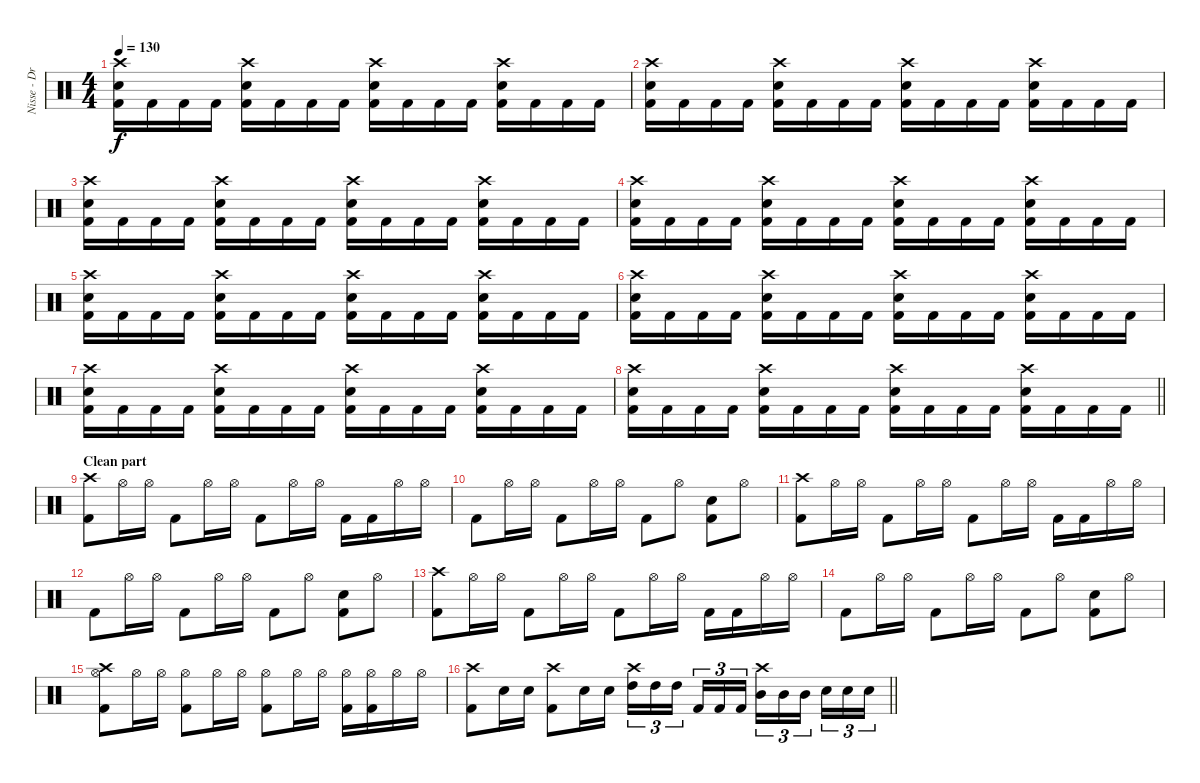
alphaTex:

\track ("Nisse - Drums" "Nisse - Dr") {instrument percussion}
\staff {score}
\articulation defaults
\ts (4 4)
\tempo 130
\clef neutral
\ks c
("Crash high (hit)" "Electric Snare (hit)" "Kick (hit) 2").16{dy f} "Kick (hit) 2".16 "Kick (hit) 2".16 "Kick (hit) 2".16 ("Crash high (hit)" "Electric Snare (hit)" "Kick (hit) 2").16 "Kick (hit) 2".16 "Kick (hit) 2".16 "Kick (hit) 2".16 ("Crash high (hit)" "Electric Snare (hit)" "Kick (hit) 2").16 "Kick (hit) 2".16 "Kick (hit) 2".16 "Kick (hit) 2".16 ("Crash high (hit)" "Electric Snare (hit)" "Kick (hit) 2").16 "Kick (hit) 2".16 "Kick (hit) 2".16 "Kick (hit) 2".16 |
("Crash high (hit)" "Electric Snare (hit)" "Kick (hit) 2").16 "Kick (hit) 2".16 "Kick (hit) 2".16 "Kick (hit) 2".16 ("Crash high (hit)" "Electric Snare (hit)" "Kick (hit) 2").16 "Kick (hit) 2".16 "Kick (hit) 2".16 "Kick (hit) 2".16 ("Crash high (hit)" "Electric Snare (hit)" "Kick (hit) 2").16 "Kick (hit) 2".16 "Kick (hit) 2".16 "Kick (hit) 2".16 ("Crash high (hit)" "Electric Snare (hit)" "Kick (hit) 2").16 "Kick (hit) 2".16 "Kick (hit) 2".16 "Kick (hit) 2".16 |
("Crash high (hit)" "Electric Snare (hit)" "Kick (hit) 2").16 "Kick (hit) 2".16 "Kick (hit) 2".16 "Kick (hit) 2".16 ("Crash high (hit)" "Electric Snare (hit)" "Kick (hit) 2").16 "Kick (hit) 2".16 "Kick (hit) 2".16 "Kick (hit) 2".16 ("Crash high (hit)" "Electric Snare (hit)" "Kick (hit) 2").16 "Kick (hit) 2".16 "Kick (hit) 2".16 "Kick (hit) 2".16 ("Crash high (hit)" "Electric Snare (hit)" "Kick (hit) 2").16 "Kick (hit) 2".16 "Kick (hit) 2".16 "Kick (hit) 2".16 |
("Crash high (hit)" "Electric Snare (hit)" "Kick (hit) 2").16 "Kick (hit) 2".16 "Kick (hit) 2".16 "Kick (hit) 2".16 ("Crash high (hit)" "Electric Snare (hit)" "Kick (hit) 2").16 "Kick (hit) 2".16 "Kick (hit) 2".16 "Kick (hit) 2".16 ("Crash high (hit)" "Electric Snare (hit)" "Kick (hit) 2").16 "Kick (hit) 2".16 "Kick (hit) 2".16 "Kick (hit) 2".16 ("Crash high (hit)" "Electric Snare (hit)" "Kick (hit) 2").16 "Kick (hit) 2".16 "Kick (hit) 2".16 "Kick (hit) 2".16 |
("Crash high (hit)" "Electric Snare (hit)" "Kick (hit) 2").16 "Kick (hit) 2".16 "Kick (hit) 2".16 "Kick (hit) 2".16 ("Crash high (hit)" "Electric Snare (hit)" "Kick (hit) 2").16 "Kick (hit) 2".16 "Kick (hit) 2".16 "Kick (hit) 2".16 ("Crash high (hit)" "Electric Snare (hit)" "Kick (hit) 2").16 "Kick (hit) 2".16 "Kick (hit) 2".16 "Kick (hit) 2".16 ("Crash high (hit)" "Electric Snare (hit)" "Kick (hit) 2").16 "Kick (hit) 2".16 "Kick (hit) 2".16 "Kick (hit) 2".16 |
("Crash high (hit)" "Electric Snare (hit)" "Kick (hit) 2").16 "Kick (hit) 2".16 "Kick (hit) 2".16 "Kick (hit) 2".16 ("Crash high (hit)" "Electric Snare (hit)" "Kick (hit) 2").16 "Kick (hit) 2".16 "Kick (hit) 2".16 "Kick (hit) 2".16 ("Crash high (hit)" "Electric Snare (hit)" "Kick (hit) 2").16 "Kick (hit) 2".16 "Kick (hit) 2".16 "Kick (hit) 2".16 ("Crash high (hit)" "Electric Snare (hit)" "Kick (hit) 2").16 "Kick (hit) 2".16 "Kick (hit) 2".16 "Kick (hit) 2".16 |
("Crash high (hit)" "Electric Snare (hit)" "Kick (hit) 2").16 "Kick (hit) 2".16 "Kick (hit) 2".16 "Kick (hit) 2".16 ("Crash high (hit)" "Electric Snare (hit)" "Kick (hit) 2").16 "Kick (hit) 2".16 "Kick (hit) 2".16 "Kick (hit) 2".16 ("Crash high (hit)" "Electric Snare (hit)" "Kick (hit) 2").16 "Kick (hit) 2".16 "Kick (hit) 2".16 "Kick (hit) 2".16 ("Crash high (hit)" "Electric Snare (hit)" "Kick (hit) 2").16 "Kick (hit) 2".16 "Kick (hit) 2".16 "Kick (hit) 2".16 |
\barLineRight lightlight
("Crash high (hit)" "Electric Snare (hit)" "Kick (hit) 2").16 "Kick (hit) 2".16 "Kick (hit) 2".16 "Kick (hit) 2".16 ("Crash high (hit)" "Electric Snare (hit)" "Kick (hit) 2").16 "Kick (hit) 2".16 "Kick (hit) 2".16 "Kick (hit) 2".16 ("Crash high (hit)" "Electric Snare (hit)" "Kick (hit) 2").16 "Kick (hit) 2".16 "Kick (hit) 2".16 "Kick (hit) 2".16 ("Crash high (hit)" "Electric Snare (hit)" "Kick (hit) 2").16 "Kick (hit) 2".16 "Kick (hit) 2".16 "Kick (hit) 2".16 |
\section ("" "Clean part")
("Crash high (hit)" "Kick (hit) 2").8 "Hi-Hat (open)".16 "Hi-Hat (open)".16 "Kick (hit) 2".8 "Hi-Hat (open)".16 "Hi-Hat (open)".16 "Kick (hit) 2".8 "Hi-Hat (open)".16 "Hi-Hat (open)".16 "Kick (hit) 2".16 "Kick (hit) 2".16 "Hi-Hat (open)".16 "Hi-Hat (open)".16 |
"Kick (hit) 2".8 "Hi-Hat (open)".16 "Hi-Hat (open)".16 "Kick (hit) 2".8 "Hi-Hat (open)".16 "Hi-Hat (open)".16 "Kick (hit) 2".8 "Hi-Hat (open)".8 ("Electric Snare (hit)" "Kick (hit) 2").8 "Hi-Hat (open)".8 |
("Crash high (hit)" "Kick (hit) 2").8 "Hi-Hat (open)".16 "Hi-Hat (open)".16 "Kick (hit) 2".8 "Hi-Hat (open)".16 "Hi-Hat (open)".16 "Kick (hit) 2".8 "Hi-Hat (open)".16 "Hi-Hat (open)".16 "Kick (hit) 2".16 "Kick (hit) 2".16 "Hi-Hat (open)".16 "Hi-Hat (open)".16 |
"Kick (hit) 2".8 "Hi-Hat (open)".16 "Hi-Hat (open)".16 "Kick (hit) 2".8 "Hi-Hat (open)".16 "Hi-Hat (open)".16 "Kick (hit) 2".8 "Hi-Hat (open)".8 ("Electric Snare (hit)" "Kick (hit) 2").8 "Hi-Hat (open)".8 |
("Crash high (hit)" "Kick (hit) 2").8 "Hi-Hat (open)".16 "Hi-Hat (open)".16 "Kick (hit) 2".8 "Hi-Hat (open)".16 "Hi-Hat (open)".16 "Kick (hit) 2".8 "Hi-Hat (open)".16 "Hi-Hat (open)".16 "Kick (hit) 2".16 "Kick (hit) 2".16 "Hi-Hat (open)".16 "Hi-Hat (open)".16 |
"Kick (hit) 2".8 "Hi-Hat (open)".16 "Hi-Hat (open)".16 "Kick (hit) 2".8 "Hi-Hat (open)".16 "Hi-Hat (open)".16 "Kick (hit) 2".8 "Hi-Hat (open)".8 ("Electric Snare (hit)" "Kick (hit) 2").8 "Hi-Hat (open)".8 |
("Crash high (hit)" "Hi-Hat (open)" "Kick (hit) 2").8 "Hi-Hat (open)".16 "Hi-Hat (open)".16 ("Hi-Hat (open)" "Kick (hit) 2").8 "Hi-Hat (open)".16 "Hi-Hat (open)".16 ("Hi-Hat (open)" "Kick (hit) 2").8 "Hi-Hat (open)".16 "Hi-Hat (open)".16 ("Hi-Hat (open)" "Kick (hit) 2").16 ("Hi-Hat (open)" "Kick (hit) 2").16 "Hi-Hat (open)".16 "Hi-Hat (open)".16 |
\barLineRight lightlight
("Crash high (hit)" "Kick (hit) 2").8 "Electric Snare (hit)".16 "Electric Snare (hit)".16 ("Crash high (hit)" "Kick (hit) 2").8 "Electric Snare (hit)".16 "Electric Snare (hit)".16 ("Crash high (hit)" "High Tom (hit)").16{tu (3 2)} "High Tom (hit)".16{tu (3 2)} "High Tom (hit)".16{tu (3 2) beam splitsecondary} "Kick (hit) 2".16{tu (3 2)} "Kick (hit) 2".16{tu (3 2)} "Kick (hit) 2".16{tu (3 2)} ("Crash high (hit)" "Mid Tom (hit)").16{tu (3 2)} "Mid Tom (hit)".16{tu (3 2)} "Mid Tom (hit)".16{tu (3 2) beam splitsecondary} "Electric Snare (hit)".16{tu (3 2)} "Electric Snare (hit)".16{tu (3 2)} "Electric Snare (hit)".16{tu (3 2)}
